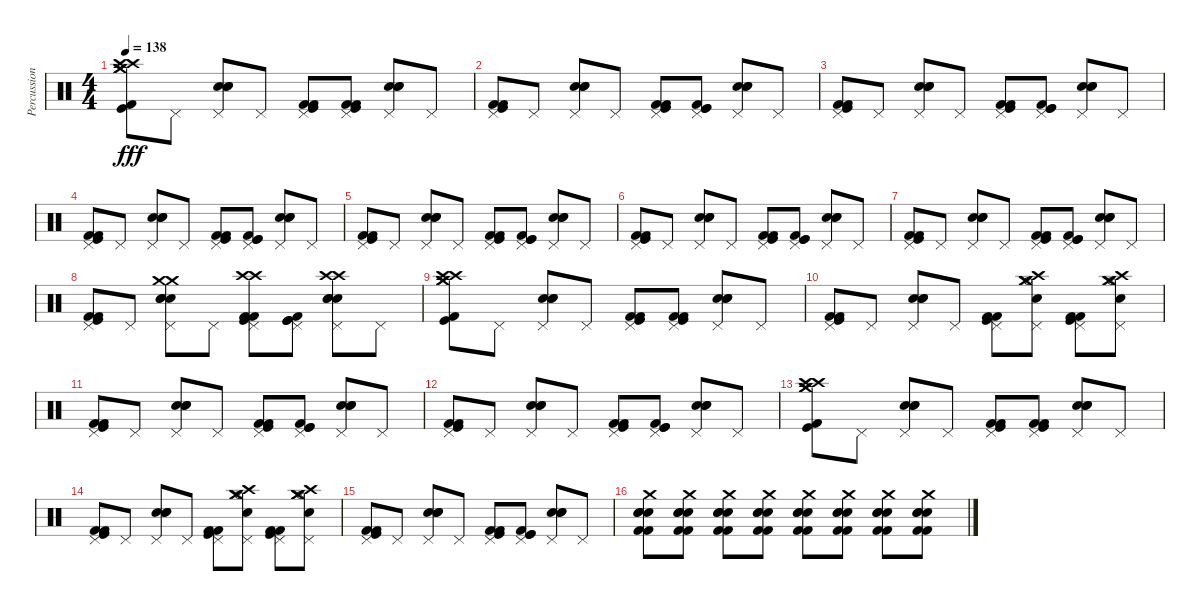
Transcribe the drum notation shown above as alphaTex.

\track ("Percussion" "Percussion") {instrument percussion}
\staff {score}
\articulation defaults
\ts (4 4)
\tempo 138
\clef neutral
\ks c
("Crash high (hit)" "Crash medium (hit)" "Kick (hit)" "Crash high (hit)" "Crash medium (hit)" "Kick (hit) 2").8{dy fff} "Pedal Hi-Hat (hit)".8 ("Pedal Hi-Hat (hit)" "Electric Snare (hit)" "Snare (hit) 2" "Electric Snare (hit)").8 "Pedal Hi-Hat (hit)".8 ("Pedal Hi-Hat (hit)" "Kick (hit) 2" "Kick (hit)" "Kick (hit) 2").8 ("Pedal Hi-Hat (hit)" "Kick (hit) 2" "Kick (hit)" "Kick (hit) 2").8 ("Pedal Hi-Hat (hit)" "Electric Snare (hit)" "Snare (hit) 2" "Electric Snare (hit)").8 "Pedal Hi-Hat (hit)".8 |
("Pedal Hi-Hat (hit)" "Kick (hit) 2" "Kick (hit)" "Kick (hit) 2").8 "Pedal Hi-Hat (hit)".8 ("Pedal Hi-Hat (hit)" "Electric Snare (hit)" "Snare (hit) 2" "Electric Snare (hit)").8 "Pedal Hi-Hat (hit)".8 ("Pedal Hi-Hat (hit)" "Kick (hit) 2" "Kick (hit)" "Kick (hit) 2").8 ("Pedal Hi-Hat (hit)" "Kick (hit) 2" "Kick (hit)" "Kick (hit)").8 ("Pedal Hi-Hat (hit)" "Electric Snare (hit)" "Snare (hit) 2" "Electric Snare (hit)").8 "Pedal Hi-Hat (hit)".8 |
("Pedal Hi-Hat (hit)" "Kick (hit) 2" "Kick (hit)" "Kick (hit) 2").8 "Pedal Hi-Hat (hit)".8 ("Pedal Hi-Hat (hit)" "Electric Snare (hit)" "Snare (hit) 2" "Electric Snare (hit)").8 "Pedal Hi-Hat (hit)".8 ("Pedal Hi-Hat (hit)" "Kick (hit) 2" "Kick (hit)" "Kick (hit) 2").8 ("Pedal Hi-Hat (hit)" "Kick (hit) 2" "Kick (hit)" "Kick (hit)").8 ("Pedal Hi-Hat (hit)" "Electric Snare (hit)" "Snare (hit) 2" "Electric Snare (hit)").8 "Pedal Hi-Hat (hit)".8 |
("Pedal Hi-Hat (hit)" "Kick (hit) 2" "Kick (hit)" "Kick (hit) 2").8 "Pedal Hi-Hat (hit)".8 ("Pedal Hi-Hat (hit)" "Electric Snare (hit)" "Snare (hit) 2" "Electric Snare (hit)").8 "Pedal Hi-Hat (hit)".8 ("Pedal Hi-Hat (hit)" "Kick (hit) 2" "Kick (hit)" "Kick (hit) 2").8 ("Pedal Hi-Hat (hit)" "Kick (hit) 2" "Kick (hit)" "Kick (hit)").8 ("Pedal Hi-Hat (hit)" "Electric Snare (hit)" "Snare (hit) 2" "Electric Snare (hit)").8 "Pedal Hi-Hat (hit)".8 |
("Pedal Hi-Hat (hit)" "Kick (hit) 2" "Kick (hit)" "Kick (hit) 2").8 "Pedal Hi-Hat (hit)".8 ("Pedal Hi-Hat (hit)" "Electric Snare (hit)" "Snare (hit) 2" "Electric Snare (hit)").8 "Pedal Hi-Hat (hit)".8 ("Pedal Hi-Hat (hit)" "Kick (hit) 2" "Kick (hit)" "Kick (hit) 2").8 ("Pedal Hi-Hat (hit)" "Kick (hit) 2" "Kick (hit)" "Kick (hit)").8 ("Pedal Hi-Hat (hit)" "Electric Snare (hit)" "Snare (hit) 2" "Electric Snare (hit)").8 "Pedal Hi-Hat (hit)".8 |
("Pedal Hi-Hat (hit)" "Kick (hit) 2" "Kick (hit)" "Kick (hit) 2").8 "Pedal Hi-Hat (hit)".8 ("Pedal Hi-Hat (hit)" "Electric Snare (hit)" "Snare (hit) 2" "Electric Snare (hit)").8 "Pedal Hi-Hat (hit)".8 ("Pedal Hi-Hat (hit)" "Kick (hit) 2" "Kick (hit)" "Kick (hit) 2").8 ("Pedal Hi-Hat (hit)" "Kick (hit) 2" "Kick (hit)" "Kick (hit)").8 ("Pedal Hi-Hat (hit)" "Electric Snare (hit)" "Snare (hit) 2" "Electric Snare (hit)").8 "Pedal Hi-Hat (hit)".8 |
("Pedal Hi-Hat (hit)" "Kick (hit) 2" "Kick (hit)" "Kick (hit) 2").8 "Pedal Hi-Hat (hit)".8 ("Pedal Hi-Hat (hit)" "Electric Snare (hit)" "Snare (hit) 2" "Electric Snare (hit)").8 "Pedal Hi-Hat (hit)".8 ("Pedal Hi-Hat (hit)" "Kick (hit) 2" "Kick (hit)" "Kick (hit) 2").8 ("Pedal Hi-Hat (hit)" "Kick (hit) 2" "Kick (hit)" "Kick (hit)").8 ("Pedal Hi-Hat (hit)" "Electric Snare (hit)" "Snare (hit) 2" "Electric Snare (hit)").8 "Pedal Hi-Hat (hit)".8 |
("Pedal Hi-Hat (hit)" "Kick (hit) 2" "Kick (hit)" "Kick (hit) 2").8 "Pedal Hi-Hat (hit)".8 ("Pedal Hi-Hat (hit)" "Crash medium (hit)" "Crash medium (hit)" "Electric Snare (hit)" "Snare (hit) 2" "Electric Snare (hit)").8 "Pedal Hi-Hat (hit)".8 ("Pedal Hi-Hat (hit)" "Crash high (hit)" "Crash high (hit)" "Kick (hit) 2" "Kick (hit)" "Kick (hit) 2").8 ("Pedal Hi-Hat (hit)" "Kick (hit) 2" "Kick (hit)" "Kick (hit)").8 ("Pedal Hi-Hat (hit)" "Crash high (hit)" "Crash high (hit)" "Electric Snare (hit)" "Snare (hit) 2" "Electric Snare (hit)").8 "Pedal Hi-Hat (hit)".8 |
("Crash high (hit)" "Crash medium (hit)" "Kick (hit)" "Crash high (hit)" "Crash medium (hit)" "Kick (hit) 2").8 "Pedal Hi-Hat (hit)".8 ("Pedal Hi-Hat (hit)" "Electric Snare (hit)" "Snare (hit) 2" "Electric Snare (hit)").8 "Pedal Hi-Hat (hit)".8 ("Pedal Hi-Hat (hit)" "Kick (hit) 2" "Kick (hit)" "Kick (hit) 2").8 ("Pedal Hi-Hat (hit)" "Kick (hit) 2" "Kick (hit)" "Kick (hit) 2").8 ("Pedal Hi-Hat (hit)" "Electric Snare (hit)" "Snare (hit) 2" "Electric Snare (hit)").8 "Pedal Hi-Hat (hit)".8 |
("Pedal Hi-Hat (hit)" "Kick (hit) 2" "Kick (hit)" "Kick (hit) 2").8 "Pedal Hi-Hat (hit)".8 ("Pedal Hi-Hat (hit)" "Electric Snare (hit)" "Snare (hit) 2" "Electric Snare (hit)").8 "Pedal Hi-Hat (hit)".8 ("Pedal Hi-Hat (hit)" "Kick (hit) 2" "Kick (hit)" "Kick (hit) 2").8 ("Pedal Hi-Hat (hit)" "Crash high (hit)" "Crash medium (hit)" "Hi-Hat (open)" "Crash medium (hit)" "Electric Snare (hit)").8 ("Pedal Hi-Hat (hit)" "Kick (hit) 2" "Kick (hit)" "Kick (hit) 2").8 ("Pedal Hi-Hat (hit)" "Crash high (hit)" "Crash medium (hit)" "Hi-Hat (open)" "Crash medium (hit)" "Electric Snare (hit)").8 |
("Pedal Hi-Hat (hit)" "Kick (hit) 2" "Kick (hit)" "Kick (hit) 2").8 "Pedal Hi-Hat (hit)".8 ("Pedal Hi-Hat (hit)" "Electric Snare (hit)" "Snare (hit) 2" "Electric Snare (hit)").8 "Pedal Hi-Hat (hit)".8 ("Pedal Hi-Hat (hit)" "Kick (hit) 2" "Kick (hit)" "Kick (hit) 2").8 ("Pedal Hi-Hat (hit)" "Kick (hit) 2" "Kick (hit)" "Kick (hit)").8 ("Pedal Hi-Hat (hit)" "Electric Snare (hit)" "Snare (hit) 2" "Electric Snare (hit)").8 "Pedal Hi-Hat (hit)".8 |
("Pedal Hi-Hat (hit)" "Kick (hit) 2" "Kick (hit)" "Kick (hit) 2").8 "Pedal Hi-Hat (hit)".8 ("Pedal Hi-Hat (hit)" "Electric Snare (hit)" "Snare (hit) 2" "Electric Snare (hit)").8 "Pedal Hi-Hat (hit)".8 ("Pedal Hi-Hat (hit)" "Kick (hit) 2" "Kick (hit)" "Kick (hit) 2").8 ("Pedal Hi-Hat (hit)" "Kick (hit) 2" "Kick (hit)" "Kick (hit)").8 ("Pedal Hi-Hat (hit)" "Electric Snare (hit)" "Snare (hit) 2" "Electric Snare (hit)").8 "Pedal Hi-Hat (hit)".8 |
("Crash high (hit)" "Crash medium (hit)" "Kick (hit)" "Crash high (hit)" "Crash medium (hit)" "Kick (hit) 2").8 "Pedal Hi-Hat (hit)".8 ("Pedal Hi-Hat (hit)" "Electric Snare (hit)" "Snare (hit) 2" "Electric Snare (hit)").8 "Pedal Hi-Hat (hit)".8 ("Pedal Hi-Hat (hit)" "Kick (hit) 2" "Kick (hit)" "Kick (hit) 2").8 ("Pedal Hi-Hat (hit)" "Kick (hit) 2" "Kick (hit)" "Kick (hit) 2").8 ("Pedal Hi-Hat (hit)" "Electric Snare (hit)" "Snare (hit) 2" "Electric Snare (hit)").8 "Pedal Hi-Hat (hit)".8 |
("Pedal Hi-Hat (hit)" "Kick (hit) 2" "Kick (hit)" "Kick (hit) 2").8 "Pedal Hi-Hat (hit)".8 ("Pedal Hi-Hat (hit)" "Electric Snare (hit)" "Snare (hit) 2" "Electric Snare (hit)").8 "Pedal Hi-Hat (hit)".8 ("Pedal Hi-Hat (hit)" "Kick (hit) 2" "Kick (hit)" "Kick (hit) 2").8 ("Pedal Hi-Hat (hit)" "Crash high (hit)" "Crash medium (hit)" "Hi-Hat (open)" "Crash medium (hit)" "Electric Snare (hit)").8 ("Pedal Hi-Hat (hit)" "Kick (hit) 2" "Kick (hit)" "Kick (hit) 2").8 ("Pedal Hi-Hat (hit)" "Crash high (hit)" "Crash medium (hit)" "Hi-Hat (open)" "Crash medium (hit)" "Electric Snare (hit)").8 |
("Pedal Hi-Hat (hit)" "Kick (hit) 2" "Kick (hit)" "Kick (hit) 2").8 "Pedal Hi-Hat (hit)".8 ("Pedal Hi-Hat (hit)" "Electric Snare (hit)" "Snare (hit) 2" "Electric Snare (hit)").8 "Pedal Hi-Hat (hit)".8 ("Pedal Hi-Hat (hit)" "Kick (hit) 2" "Kick (hit)" "Kick (hit) 2").8 ("Pedal Hi-Hat (hit)" "Kick (hit) 2" "Kick (hit)" "Kick (hit)").8 ("Pedal Hi-Hat (hit)" "Electric Snare (hit)" "Snare (hit) 2" "Electric Snare (hit)").8 "Pedal Hi-Hat (hit)".8 |
("Crash medium (hit)" "Kick (hit) 2" "Electric Snare (hit)" "Electric Snare (hit)" "Snare (hit) 2" "Kick (hit) 2").8 ("Crash medium (hit)" "Kick (hit) 2" "Electric Snare (hit)" "Electric Snare (hit)" "Snare (hit) 2" "Kick (hit) 2").8 ("Crash medium (hit)" "Kick (hit) 2" "Electric Snare (hit)" "Electric Snare (hit)" "Snare (hit) 2" "Kick (hit) 2").8 ("Crash medium (hit)" "Kick (hit) 2" "Electric Snare (hit)" "Electric Snare (hit)" "Snare (hit) 2" "Kick (hit) 2").8 ("Crash medium (hit)" "Kick (hit) 2" "Electric Snare (hit)" "Electric Snare (hit)" "Snare (hit) 2" "Kick (hit) 2").8 ("Crash medium (hit)" "Kick (hit) 2" "Electric Snare (hit)" "Electric Snare (hit)" "Snare (hit) 2" "Kick (hit) 2").8 ("Crash medium (hit)" "Kick (hit) 2" "Electric Snare (hit)" "Electric Snare (hit)" "Snare (hit) 2" "Kick (hit) 2").8 ("Crash medium (hit)" "Kick (hit) 2" "Electric Snare (hit)" "Electric Snare (hit)" "Snare (hit) 2" "Kick (hit) 2").8
